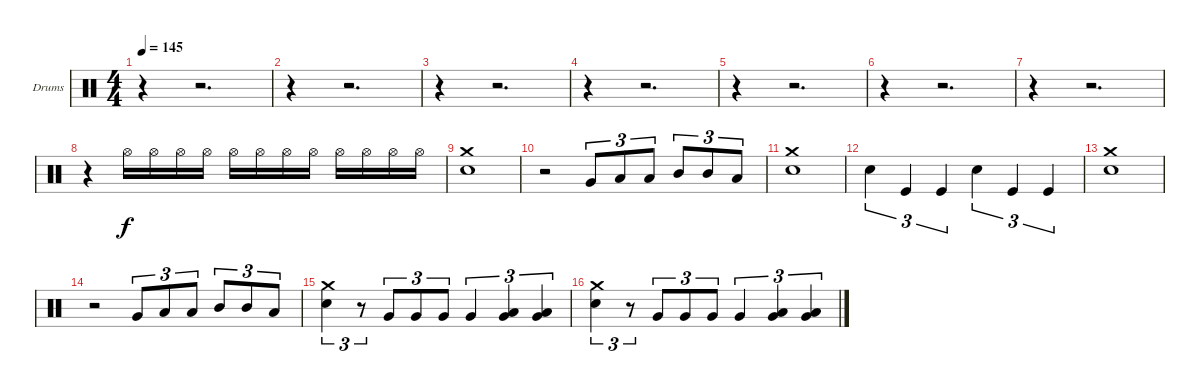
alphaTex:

\bracketExtendMode groupsimilarinstruments
\firstSystemTrackNameOrientation horizontal
\otherSystemsTrackNameOrientation horizontal
\track ("FREDRIK ANDERSSON" "Drums") {instrument percussion}
\staff {score}
\articulation defaults
\ts (4 4)
\tempo 145
\clef neutral
\ks c
r.4{dy f} r.2{d} |
r.4 r.2{d} |
r.4 r.2{d} |
r.4 r.2{d} |
r.4 r.2{d} |
r.4 r.2{d} |
r.4 r.2{d} |
r.4 "Hi-Hat (open)".16 "Hi-Hat (open)".16 "Hi-Hat (open)".16 "Hi-Hat (open)".16 "Hi-Hat (open)".16 "Hi-Hat (open)".16 "Hi-Hat (open)".16 "Hi-Hat (open)".16 "Hi-Hat (open)".16 "Hi-Hat (open)".16 "Hi-Hat (open)".16 "Hi-Hat (open)".16 |
("Crash medium (hit)" "Snare (hit) 2").1 |
r.2 "Very Low Tom (hit)".8{tu (3 2)} "Low Tom (hit)".8{tu (3 2)} "Low Tom (hit)".8{tu (3 2)} "Mid Tom (hit)".8{tu (3 2)} "Mid Tom (hit)".8{tu (3 2)} "Low Tom (hit)".8{tu (3 2)} |
("Snare (hit) 2" "Crash medium (hit)").1 |
"Snare (hit) 2".4{tu (3 2)} "Kick (hit)".4{tu (3 2)} "Kick (hit)".4{tu (3 2)} "Snare (hit) 2".4{tu (3 2)} "Kick (hit)".4{tu (3 2)} "Kick (hit)".4{tu (3 2)} |
("Crash medium (hit)" "Snare (hit) 2").1 |
r.2 "Very Low Tom (hit)".8{tu (3 2)} "Low Tom (hit)".8{tu (3 2)} "Low Tom (hit)".8{tu (3 2)} "Mid Tom (hit)".8{tu (3 2)} "Mid Tom (hit)".8{tu (3 2)} "Low Tom (hit)".8{tu (3 2)} |
("Crash medium (hit)" "Snare (hit) 2").4{tu (3 2)} r.8{tu (3 2)} "Very Low Tom (hit)".8{tu (3 2)} "Very Low Tom (hit)".8{tu (3 2)} "Very Low Tom (hit)".8{tu (3 2)} "Very Low Tom (hit)".4{tu (3 2)} ("Low Tom (hit)" "Very Low Tom (hit)").4{tu (3 2)} ("Low Tom (hit)" "Very Low Tom (hit)").4{tu (3 2)} |
("Crash medium (hit)" "Snare (hit) 2").4{tu (3 2)} r.8{tu (3 2)} "Very Low Tom (hit)".8{tu (3 2)} "Very Low Tom (hit)".8{tu (3 2)} "Very Low Tom (hit)".8{tu (3 2)} "Very Low Tom (hit)".4{tu (3 2)} ("Low Tom (hit)" "Very Low Tom (hit)").4{tu (3 2)} ("Low Tom (hit)" "Very Low Tom (hit)").4{tu (3 2)}
